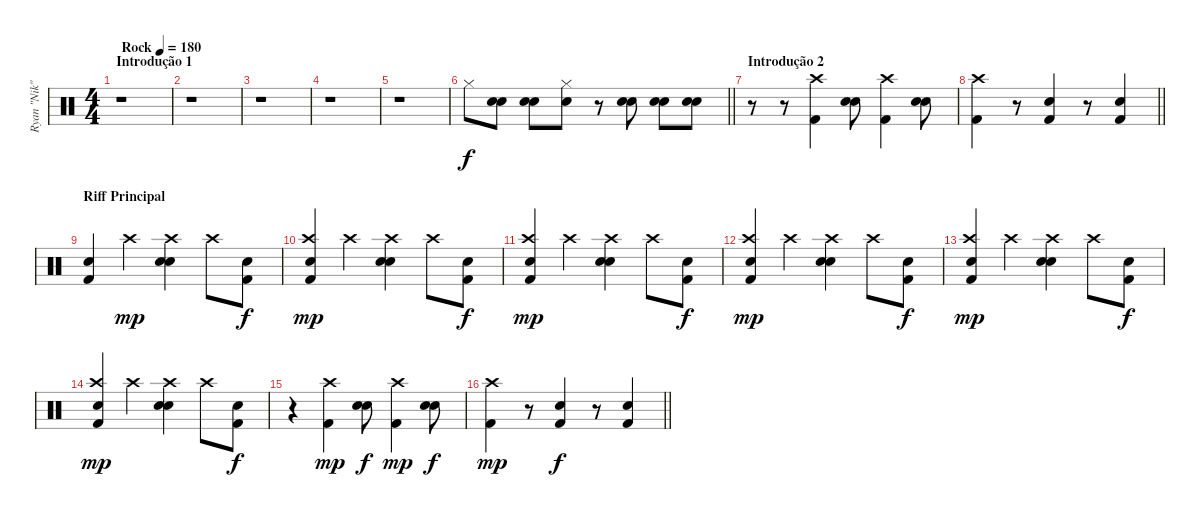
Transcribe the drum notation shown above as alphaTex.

\track ("Ryan \"Nik\"" "Ryan \"Nik\"") {instrument percussion}
\staff {score}
\articulation defaults
\ts (4 4)
\section ("" "Introdução 1")
\tempo (180 "Rock")
\clef neutral
\ks c
r.1{dy f} |
r.1 |
r.1 |
r.1 |
r.1 |
\barLineRight lightlight "Hi-Hat (closed)".8
("Electric Snare (hit)" "Electric Snare (hit)").8 ("Electric Snare (hit)" "Electric Snare (hit)").8 ("Hi-Hat (closed)" "Electric Snare (hit)").8 r.8 ("Electric Snare (hit)" "Electric Snare (hit)").8 ("Electric Snare (hit)" "Electric Snare (hit)").8 ("Electric Snare (hit)" "Electric Snare (hit)").8 |
\section ("" "Introdução 2")
r.8 r.8 ("Crash high (hit)" "Kick (hit) 2").4 ("Electric Snare (hit)" "Electric Snare (hit)").8 ("Crash high (hit)" "Kick (hit) 2").4 ("Electric Snare (hit)" "Electric Snare (hit)").8 |
\barLineRight lightlight
("Crash high (hit)" "Kick (hit) 2").4 r.8 ("Electric Snare (hit)" "Kick (hit) 2").4 r.8 ("Electric Snare (hit)" "Kick (hit) 2").4 |
\section ("" "Riff Principal")
("Electric Snare (hit)" "Kick (hit) 2").4 "Crash high (hit)".4{dy mp} ("Crash high (hit)" "Electric Snare (hit)" "Electric Snare (hit)").4 "Crash high (hit)".8 ("Kick (hit) 2" "Electric Snare (hit)").8{dy f} |
("Crash high (hit)" "Electric Snare (hit)" "Kick (hit) 2").4{dy mp} "Crash high (hit)".4 ("Crash high (hit)" "Electric Snare (hit)" "Electric Snare (hit)").4 "Crash high (hit)".8 ("Kick (hit) 2" "Electric Snare (hit)").8{dy f} |
("Crash high (hit)" "Electric Snare (hit)" "Kick (hit) 2").4{dy mp} "Crash high (hit)".4 ("Crash high (hit)" "Electric Snare (hit)" "Electric Snare (hit)").4 "Crash high (hit)".8 ("Kick (hit) 2" "Electric Snare (hit)").8{dy f} |
("Crash high (hit)" "Electric Snare (hit)" "Kick (hit) 2").4{dy mp} "Crash high (hit)".4 ("Crash high (hit)" "Electric Snare (hit)" "Electric Snare (hit)").4 "Crash high (hit)".8 ("Kick (hit) 2" "Electric Snare (hit)").8{dy f} |
("Crash high (hit)" "Electric Snare (hit)" "Kick (hit) 2").4{dy mp} "Crash high (hit)".4 ("Crash high (hit)" "Electric Snare (hit)" "Electric Snare (hit)").4 "Crash high (hit)".8 ("Kick (hit) 2" "Electric Snare (hit)").8{dy f} |
("Crash high (hit)" "Electric Snare (hit)" "Kick (hit) 2").4{dy mp} "Crash high (hit)".4 ("Crash high (hit)" "Electric Snare (hit)" "Electric Snare (hit)").4 "Crash high (hit)".8 ("Kick (hit) 2" "Electric Snare (hit)").8{dy f} |
r.4 ("Crash high (hit)" "Kick (hit) 2").4{dy mp} ("Electric Snare (hit)" "Electric Snare (hit)").8{dy f} ("Crash high (hit)" "Kick (hit) 2").4{dy mp} ("Electric Snare (hit)" "Electric Snare (hit)").8{dy f} |
\barLineRight lightlight
("Crash high (hit)" "Kick (hit) 2").4{dy mp} r.8 ("Electric Snare (hit)" "Kick (hit) 2").4{dy f} r.8 ("Electric Snare (hit)" "Kick (hit) 2").4
